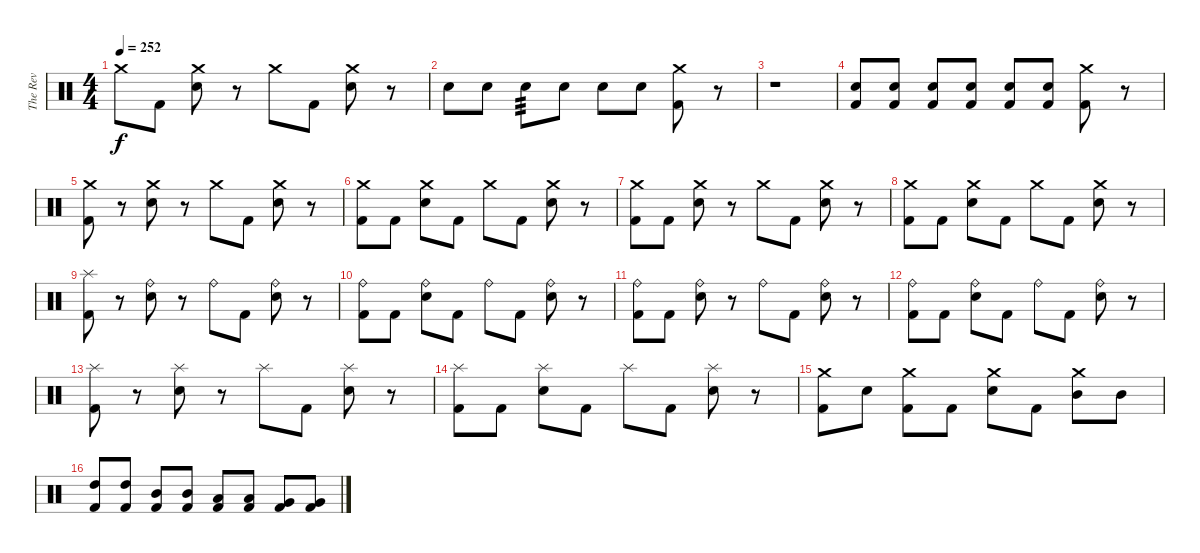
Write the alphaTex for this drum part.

\track ("The Rev" "The Rev") {instrument percussion}
\staff {score}
\articulation defaults
\ts (4 4)
\tempo 252
\clef neutral
\ks c "Crash medium (hit)".8{dy f} "Kick (hit) 2".8
("Crash medium (hit)" "Electric Snare (hit)").8 r.8 "Crash medium (hit)".8 "Kick (hit) 2".8 ("Crash medium (hit)" "Electric Snare (hit)").8 r.8 |
"Electric Snare (hit)".8 "Electric Snare (hit)".8 "Electric Snare (hit)".8{tp 3} "Electric Snare (hit)".8 "Electric Snare (hit)".8 "Electric Snare (hit)".8 ("Crash medium (hit)" "Kick (hit) 2").8 r.8 |
r.1 |
("Electric Snare (hit)" "Kick (hit) 2").8 ("Electric Snare (hit)" "Kick (hit) 2").8 ("Electric Snare (hit)" "Kick (hit) 2").8 ("Electric Snare (hit)" "Kick (hit) 2").8 ("Electric Snare (hit)" "Kick (hit) 2").8 ("Electric Snare (hit)" "Kick (hit) 2").8 ("Crash medium (hit)" "Kick (hit) 2").8 r.8 |
("Crash medium (hit)" "Kick (hit) 2").8 r.8 ("Crash medium (hit)" "Electric Snare (hit)").8 r.8 "Crash medium (hit)".8 "Kick (hit) 2".8 ("Crash medium (hit)" "Electric Snare (hit)").8 r.8 |
("Crash medium (hit)" "Kick (hit) 2").8 "Kick (hit) 2".8 ("Crash medium (hit)" "Electric Snare (hit)").8 "Kick (hit) 2".8 "Crash medium (hit)".8 "Kick (hit) 2".8 ("Crash medium (hit)" "Electric Snare (hit)").8 r.8 |
("Crash medium (hit)" "Kick (hit) 2").8 "Kick (hit) 2".8 ("Crash medium (hit)" "Electric Snare (hit)").8 r.8 "Crash medium (hit)".8 "Kick (hit) 2".8 ("Crash medium (hit)" "Electric Snare (hit)").8 r.8 |
("Crash medium (hit)" "Kick (hit) 2").8 "Kick (hit) 2".8 ("Crash medium (hit)" "Electric Snare (hit)").8 "Kick (hit) 2".8 "Crash medium (hit)".8 "Kick (hit) 2".8 ("Crash medium (hit)" "Electric Snare (hit)").8 r.8 |
("Splash (hit)" "Kick (hit) 2").8 r.8 ("Ride (bell)" "Electric Snare (hit)").8 r.8 "Ride (bell)".8 "Kick (hit) 2".8 ("Ride (bell)" "Electric Snare (hit)").8 r.8 |
("Ride (bell)" "Kick (hit) 2").8 "Kick (hit) 2".8 ("Ride (bell)" "Electric Snare (hit)").8 "Kick (hit) 2".8 "Ride (bell)".8 "Kick (hit) 2".8 ("Ride (bell)" "Electric Snare (hit)").8 r.8 |
("Ride (bell)" "Kick (hit) 2").8 "Kick (hit) 2".8 ("Ride (bell)" "Electric Snare (hit)").8 r.8 "Ride (bell)".8 "Kick (hit) 2".8 ("Ride (bell)" "Electric Snare (hit)").8 r.8 |
("Ride (bell)" "Kick (hit) 2").8 "Kick (hit) 2".8 ("Ride (bell)" "Electric Snare (hit)").8 "Kick (hit) 2".8 "Ride (bell)".8 "Kick (hit) 2".8 ("Ride (bell)" "Electric Snare (hit)").8 r.8 |
("Splash (hit)" "Kick (hit) 2").8 r.8 ("Splash (hit)" "Electric Snare (hit)").8 r.8 "Splash (hit)".8 "Kick (hit) 2".8 ("Splash (hit)" "Electric Snare (hit)").8 r.8 |
("Splash (hit)" "Kick (hit) 2").8 "Kick (hit) 2".8 ("Splash (hit)" "Electric Snare (hit)").8 "Kick (hit) 2".8 "Splash (hit)".8 "Kick (hit) 2".8 ("Splash (hit)" "Electric Snare (hit)").8 r.8 |
("Crash medium (hit)" "Kick (hit) 2").8 "Electric Snare (hit)".8 ("Crash medium (hit)" "Kick (hit) 2").8 "Kick (hit) 2".8 ("Crash medium (hit)" "Electric Snare (hit)").8 "Kick (hit) 2".8 ("Crash medium (hit)" "Mid Tom (hit)").8 "Mid Tom (hit)".8 |
("High Tom (hit)" "Kick (hit) 2").8 ("High Tom (hit)" "Kick (hit) 2").8 ("Mid Tom (hit)" "Kick (hit) 2").8 ("Mid Tom (hit)" "Kick (hit) 2").8 ("Low Tom (hit)" "Kick (hit) 2").8 ("Low Tom (hit)" "Kick (hit) 2").8 ("Very Low Tom (hit)" "Kick (hit) 2").8 ("Very Low Tom (hit)" "Kick (hit) 2").8
